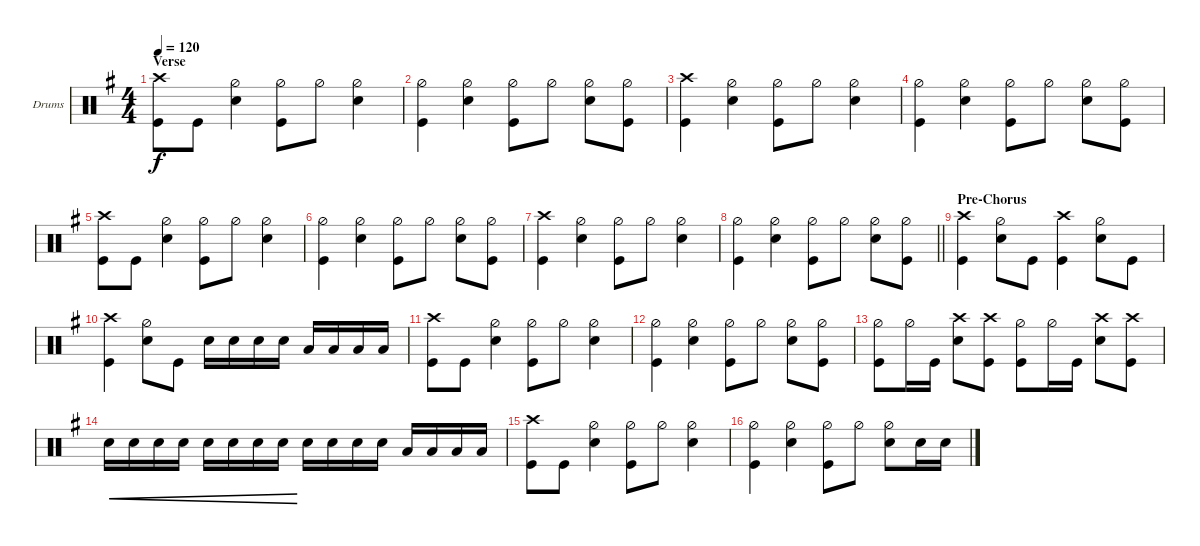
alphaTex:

\defaultSystemsLayout 4
\bracketExtendMode groupsimilarinstruments
\firstSystemTrackNameOrientation horizontal
\otherSystemsTrackNameOrientation horizontal
\track ("Drums" "Drums") {instrument percussion}
\staff {score}
\articulation defaults
\ts (4 4)
\section ("" "Verse")
\tempo 120
\clef neutral
\ks g
("Kick (hit)" "Crash high (hit)").8{dy f} "Kick (hit)".8 ("Snare (hit) 2" "Hi-Hat (half)").4 ("Kick (hit)" "Hi-Hat (half)").8 "Hi-Hat (half)".8 ("Snare (hit) 2" "Hi-Hat (half)").4 |
("Kick (hit)" "Hi-Hat (half)").4 ("Snare (hit) 2" "Hi-Hat (half)").4 ("Kick (hit)" "Hi-Hat (half)").8 "Hi-Hat (half)".8 ("Snare (hit) 2" "Hi-Hat (half)").8 ("Kick (hit)" "Hi-Hat (half)").8 |
("Kick (hit)" "Crash high (hit)").4 ("Snare (hit) 2" "Hi-Hat (half)").4 ("Kick (hit)" "Hi-Hat (half)").8 "Hi-Hat (half)".8 ("Snare (hit) 2" "Hi-Hat (half)").4 |
("Kick (hit)" "Hi-Hat (half)").4 ("Snare (hit) 2" "Hi-Hat (half)").4 ("Kick (hit)" "Hi-Hat (half)").8 "Hi-Hat (half)".8 ("Snare (hit) 2" "Hi-Hat (half)").8 ("Kick (hit)" "Hi-Hat (half)").8 |
("Kick (hit)" "Crash high (hit)").8 "Kick (hit)".8 ("Snare (hit) 2" "Hi-Hat (half)").4 ("Kick (hit)" "Hi-Hat (half)").8 "Hi-Hat (half)".8 ("Snare (hit) 2" "Hi-Hat (half)").4 |
("Kick (hit)" "Hi-Hat (half)").4 ("Snare (hit) 2" "Hi-Hat (half)").4 ("Kick (hit)" "Hi-Hat (half)").8 "Hi-Hat (half)".8 ("Snare (hit) 2" "Hi-Hat (half)").8 ("Kick (hit)" "Hi-Hat (half)").8 |
("Kick (hit)" "Crash high (hit)").4 ("Snare (hit) 2" "Hi-Hat (half)").4 ("Kick (hit)" "Hi-Hat (half)").8 "Hi-Hat (half)".8 ("Snare (hit) 2" "Hi-Hat (half)").4 |
\barLineRight lightlight
("Kick (hit)" "Hi-Hat (half)").4 ("Snare (hit) 2" "Hi-Hat (half)").4 ("Kick (hit)" "Hi-Hat (half)").8 "Hi-Hat (half)".8 ("Snare (hit) 2" "Hi-Hat (half)").8 ("Kick (hit)" "Hi-Hat (half)").8 |
\section ("" "Pre-Chorus")
("Kick (hit)" "Crash high (hit)").4 ("Hi-Hat (half)" "Snare (hit) 2").8 "Kick (hit)".8 ("Kick (hit)" "Crash high (hit)").4 ("Hi-Hat (half)" "Snare (hit) 2").8 "Kick (hit)".8 |
("Kick (hit)" "Crash high (hit)").4 ("Hi-Hat (half)" "Snare (hit) 2").8 "Kick (hit)".8 "Snare (hit) 2".16 "Snare (hit) 2".16 "Snare (hit) 2".16 "Snare (hit) 2".16 "Low Tom (hit)".16 "Low Tom (hit)".16 "Low Tom (hit)".16 "Low Tom (hit)".16 |
("Kick (hit)" "Crash high (hit)").8 "Kick (hit)".8 ("Snare (hit) 2" "Hi-Hat (half)").4 ("Kick (hit)" "Hi-Hat (half)").8 "Hi-Hat (half)".8 ("Snare (hit) 2" "Hi-Hat (half)").4 |
("Kick (hit)" "Hi-Hat (half)").4 ("Snare (hit) 2" "Hi-Hat (half)").4 ("Kick (hit)" "Hi-Hat (half)").8 "Hi-Hat (half)".8 ("Snare (hit) 2" "Hi-Hat (half)").8 ("Kick (hit)" "Hi-Hat (half)").8 |
("Kick (hit)" "Hi-Hat (half)").8 "Hi-Hat (half)".16 "Kick (hit)".16 ("Snare (hit) 2" "Crash high (hit)").8 ("Crash high (hit)" "Kick (hit)").8 ("Kick (hit)" "Hi-Hat (half)").8 "Hi-Hat (half)".16 "Kick (hit)".16 ("Snare (hit) 2" "Crash high (hit)").8 ("Crash high (hit)" "Kick (hit)").8 |
"Snare (hit) 2".16{cre} "Snare (hit) 2".16{cre} "Snare (hit) 2".16{cre} "Snare (hit) 2".16{cre} "Snare (hit) 2".16{cre} "Snare (hit) 2".16{cre} "Snare (hit) 2".16{cre} "Snare (hit) 2".16{cre} "Snare (hit) 2".16 "Snare (hit) 2".16 "Snare (hit) 2".16 "Snare (hit) 2".16 "Low Tom (hit)".16 "Low Tom (hit)".16 "Low Tom (hit)".16 "Low Tom (hit)".16 |
("Kick (hit)" "Crash high (hit)").8 "Kick (hit)".8 ("Snare (hit) 2" "Hi-Hat (half)").4 ("Kick (hit)" "Hi-Hat (half)").8 "Hi-Hat (half)".8 ("Snare (hit) 2" "Hi-Hat (half)").4 |
("Kick (hit)" "Hi-Hat (half)").4 ("Snare (hit) 2" "Hi-Hat (half)").4 ("Kick (hit)" "Hi-Hat (half)").8 "Hi-Hat (half)".8 ("Snare (hit) 2" "Hi-Hat (half)").8 "Snare (hit) 2".16 "Snare (hit) 2".16
